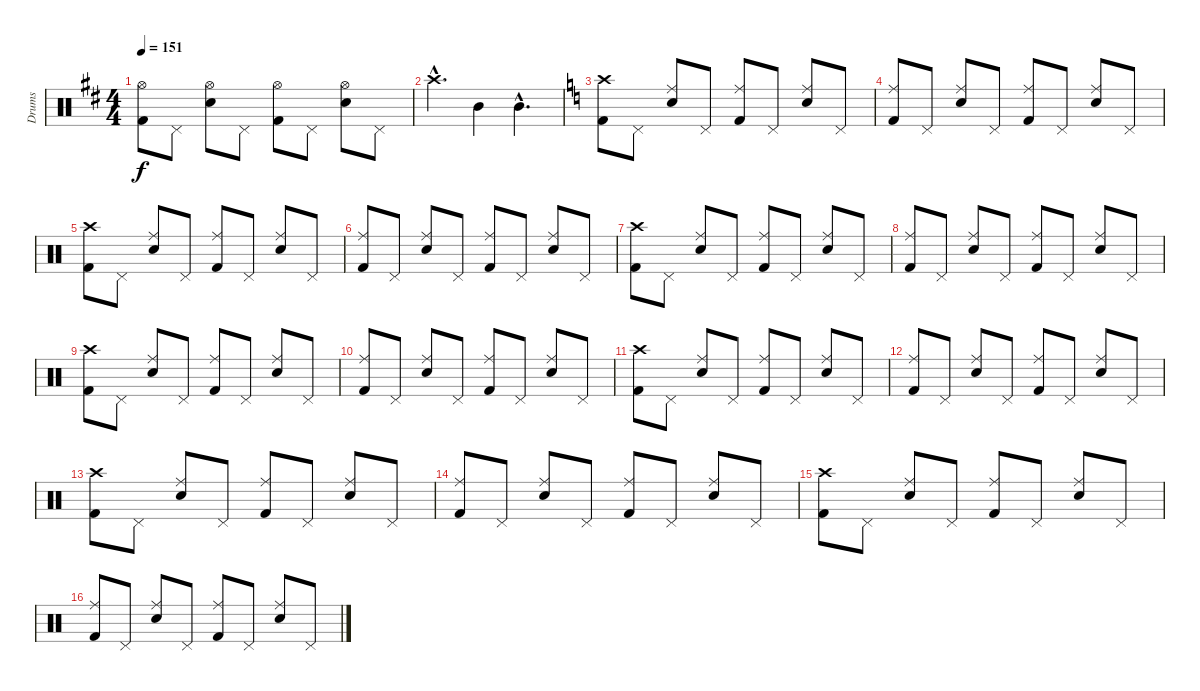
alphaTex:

\track ("Drums" "Drums") {instrument percussion}
\staff {score}
\articulation defaults
\ts (4 4)
\tempo 151
\clef neutral
\ks d
("Hi-Hat (open)" "Kick (hit) 2").8{dy f} "Pedal Hi-Hat (hit)".8 ("Hi-Hat (open)" "Electric Snare (hit)").8 "Pedal Hi-Hat (hit)".8 ("Hi-Hat (open)" "Kick (hit) 2").8 "Pedal Hi-Hat (hit)".8 ("Hi-Hat (open)" "Electric Snare (hit)").8 "Pedal Hi-Hat (hit)".8 |
"Crash high (hit)"{hac}.4{d} "Mid Tom (hit)".4 "Mid Tom (hit)"{hac}.4{d} |
\ks c
("Crash high (hit)" "Kick (hit) 2").8 "Pedal Hi-Hat (hit)".8 ("Ride (middle)" "Electric Snare (hit)").8 "Pedal Hi-Hat (hit)".8 ("Ride (middle)" "Kick (hit) 2").8 "Pedal Hi-Hat (hit)".8 ("Ride (middle)" "Electric Snare (hit)").8 "Pedal Hi-Hat (hit)".8 |
("Ride (middle)" "Kick (hit) 2").8 "Pedal Hi-Hat (hit)".8 ("Ride (middle)" "Electric Snare (hit)").8 "Pedal Hi-Hat (hit)".8 ("Ride (middle)" "Kick (hit) 2").8 "Pedal Hi-Hat (hit)".8 ("Ride (middle)" "Electric Snare (hit)").8 "Pedal Hi-Hat (hit)".8 |
("Crash high (hit)" "Kick (hit) 2").8 "Pedal Hi-Hat (hit)".8 ("Ride (middle)" "Electric Snare (hit)").8 "Pedal Hi-Hat (hit)".8 ("Ride (middle)" "Kick (hit) 2").8 "Pedal Hi-Hat (hit)".8 ("Ride (middle)" "Electric Snare (hit)").8 "Pedal Hi-Hat (hit)".8 |
("Ride (middle)" "Kick (hit) 2").8 "Pedal Hi-Hat (hit)".8 ("Ride (middle)" "Electric Snare (hit)").8 "Pedal Hi-Hat (hit)".8 ("Ride (middle)" "Kick (hit) 2").8 "Pedal Hi-Hat (hit)".8 ("Ride (middle)" "Electric Snare (hit)").8 "Pedal Hi-Hat (hit)".8 |
("Crash high (hit)" "Kick (hit) 2").8 "Pedal Hi-Hat (hit)".8 ("Ride (middle)" "Electric Snare (hit)").8 "Pedal Hi-Hat (hit)".8 ("Ride (middle)" "Kick (hit) 2").8 "Pedal Hi-Hat (hit)".8 ("Ride (middle)" "Electric Snare (hit)").8 "Pedal Hi-Hat (hit)".8 |
("Ride (middle)" "Kick (hit) 2").8 "Pedal Hi-Hat (hit)".8 ("Ride (middle)" "Electric Snare (hit)").8 "Pedal Hi-Hat (hit)".8 ("Ride (middle)" "Kick (hit) 2").8 "Pedal Hi-Hat (hit)".8 ("Ride (middle)" "Electric Snare (hit)").8 "Pedal Hi-Hat (hit)".8 |
("Crash high (hit)" "Kick (hit) 2").8 "Pedal Hi-Hat (hit)".8 ("Ride (middle)" "Electric Snare (hit)").8 "Pedal Hi-Hat (hit)".8 ("Ride (middle)" "Kick (hit) 2").8 "Pedal Hi-Hat (hit)".8 ("Ride (middle)" "Electric Snare (hit)").8 "Pedal Hi-Hat (hit)".8 |
("Ride (middle)" "Kick (hit) 2").8 "Pedal Hi-Hat (hit)".8 ("Ride (middle)" "Electric Snare (hit)").8 "Pedal Hi-Hat (hit)".8 ("Ride (middle)" "Kick (hit) 2").8 "Pedal Hi-Hat (hit)".8 ("Ride (middle)" "Electric Snare (hit)").8 "Pedal Hi-Hat (hit)".8 |
("Crash high (hit)" "Kick (hit) 2").8 "Pedal Hi-Hat (hit)".8 ("Ride (middle)" "Electric Snare (hit)").8 "Pedal Hi-Hat (hit)".8 ("Ride (middle)" "Kick (hit) 2").8 "Pedal Hi-Hat (hit)".8 ("Ride (middle)" "Electric Snare (hit)").8 "Pedal Hi-Hat (hit)".8 |
("Ride (middle)" "Kick (hit) 2").8 "Pedal Hi-Hat (hit)".8 ("Ride (middle)" "Electric Snare (hit)").8 "Pedal Hi-Hat (hit)".8 ("Ride (middle)" "Kick (hit) 2").8 "Pedal Hi-Hat (hit)".8 ("Ride (middle)" "Electric Snare (hit)").8 "Pedal Hi-Hat (hit)".8 |
("Crash high (hit)" "Kick (hit) 2").8 "Pedal Hi-Hat (hit)".8 ("Ride (middle)" "Electric Snare (hit)").8 "Pedal Hi-Hat (hit)".8 ("Ride (middle)" "Kick (hit) 2").8 "Pedal Hi-Hat (hit)".8 ("Ride (middle)" "Electric Snare (hit)").8 "Pedal Hi-Hat (hit)".8 |
("Ride (middle)" "Kick (hit) 2").8 "Pedal Hi-Hat (hit)".8 ("Ride (middle)" "Electric Snare (hit)").8 "Pedal Hi-Hat (hit)".8 ("Ride (middle)" "Kick (hit) 2").8 "Pedal Hi-Hat (hit)".8 ("Ride (middle)" "Electric Snare (hit)").8 "Pedal Hi-Hat (hit)".8 |
("Crash high (hit)" "Kick (hit) 2").8 "Pedal Hi-Hat (hit)".8 ("Ride (middle)" "Electric Snare (hit)").8 "Pedal Hi-Hat (hit)".8 ("Ride (middle)" "Kick (hit) 2").8 "Pedal Hi-Hat (hit)".8 ("Ride (middle)" "Electric Snare (hit)").8 "Pedal Hi-Hat (hit)".8 |
("Ride (middle)" "Kick (hit) 2").8 "Pedal Hi-Hat (hit)".8 ("Ride (middle)" "Electric Snare (hit)").8 "Pedal Hi-Hat (hit)".8 ("Ride (middle)" "Kick (hit) 2").8 "Pedal Hi-Hat (hit)".8 ("Ride (middle)" "Electric Snare (hit)").8 "Pedal Hi-Hat (hit)".8
